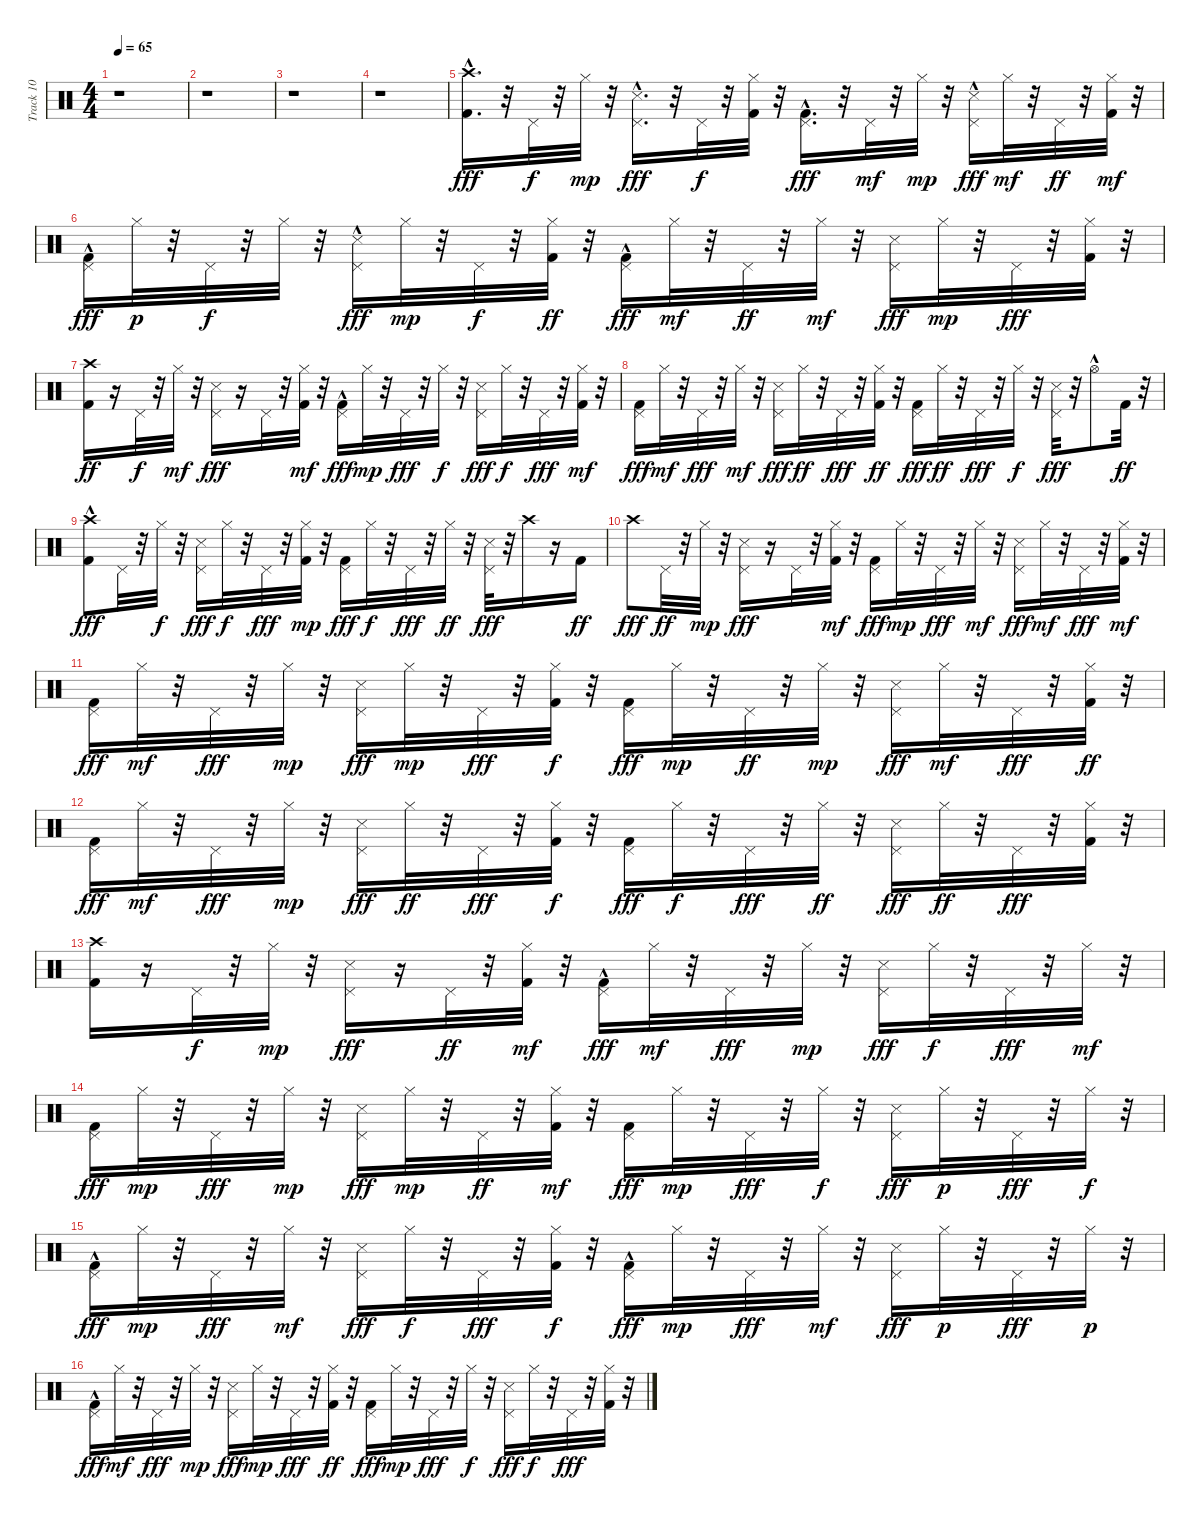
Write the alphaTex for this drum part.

\track ("Track 10" "Track 10") {instrument percussion}
\staff {score}
\articulation defaults
\ts (4 4)
\tempo 65
\clef neutral
\ks c
r.1{dy fff} |
r.1 |
r.1 |
r.1 |
("Kick (hit) 2"{hac} "Crash high (hit)").16{d} r.32 "Pedal Hi-Hat (hit)".32{dy f} r.32 "Hi-Hat (closed)".32{dy mp} r.32 ("Snare (side stick) 3"{hac} "Pedal Hi-Hat (hit)").16{d dy fff} r.32 "Pedal Hi-Hat (hit)".32{dy f} r.32 ("Hi-Hat (closed)" "Kick (hit) 2").32 r.32 ("Pedal Hi-Hat (hit)" "Kick (hit) 2"{hac}).16{d dy fff} r.32 "Pedal Hi-Hat (hit)".32{dy mf} r.32 "Hi-Hat (closed)".32{dy mp} r.32 ("Snare (side stick) 3"{hac} "Pedal Hi-Hat (hit)").16{dy fff} "Hi-Hat (closed)".32{dy mf} r.32 "Pedal Hi-Hat (hit)".32{dy ff} r.32 ("Hi-Hat (closed)" "Kick (hit) 2").32{dy mf} r.32 |
("Kick (hit) 2"{hac} "Pedal Hi-Hat (hit)").16{dy fff} "Hi-Hat (closed)".32{dy p} r.32 "Pedal Hi-Hat (hit)".32{dy f} r.32 "Hi-Hat (closed)".32 r.32 ("Snare (side stick) 3"{hac} "Pedal Hi-Hat (hit)").16{dy fff} "Hi-Hat (closed)".32{dy mp} r.32 "Pedal Hi-Hat (hit)".32{dy f} r.32 ("Kick (hit) 2" "Hi-Hat (closed)").32{dy ff} r.32 ("Kick (hit) 2"{hac} "Pedal Hi-Hat (hit)").16{dy fff} "Hi-Hat (closed)".32{dy mf} r.32 "Pedal Hi-Hat (hit)".32{dy ff} r.32 "Hi-Hat (closed)".32{dy mf} r.32 ("Snare (side stick) 3" "Pedal Hi-Hat (hit)").16{dy fff} "Hi-Hat (closed)".32{dy mp} r.32 "Pedal Hi-Hat (hit)".32{dy fff} r.32 ("Kick (hit) 2" "Hi-Hat (closed)").32 r.32 |
("Kick (hit) 2" "Crash high (hit)").16{dy ff} r.16 "Pedal Hi-Hat (hit)".32{dy f} r.32 "Hi-Hat (closed)".32{dy mf} r.32 ("Snare (side stick) 3" "Pedal Hi-Hat (hit)").16{dy fff} r.16 "Pedal Hi-Hat (hit)".32 r.32 ("Kick (hit) 2" "Hi-Hat (closed)").32{dy mf} r.32 ("Kick (hit) 2"{hac} "Pedal Hi-Hat (hit)").16{dy fff} "Hi-Hat (closed)".32{dy mp} r.32 "Pedal Hi-Hat (hit)".32{dy fff} r.32 "Hi-Hat (closed)".32{dy f} r.32 ("Snare (side stick) 3" "Pedal Hi-Hat (hit)").16{dy fff} "Hi-Hat (closed)".32{dy f} r.32 "Pedal Hi-Hat (hit)".32{dy fff} r.32 ("Hi-Hat (closed)" "Kick (hit) 2").32{dy mf} r.32 |
("Kick (hit) 2" "Pedal Hi-Hat (hit)").16{dy fff} "Hi-Hat (closed)".32{dy mf} r.32 "Pedal Hi-Hat (hit)".32{dy fff} r.32 "Hi-Hat (closed)".32{dy mf} r.32 ("Snare (side stick) 3" "Pedal Hi-Hat (hit)").16{dy fff} "Hi-Hat (closed)".32{dy ff} r.32 "Pedal Hi-Hat (hit)".32{dy fff} r.32 ("Kick (hit) 2" "Hi-Hat (closed)").32{dy ff} r.32 ("Kick (hit) 2" "Pedal Hi-Hat (hit)").16{dy fff} "Hi-Hat (closed)".32{dy ff} r.32 "Pedal Hi-Hat (hit)".32{dy fff} r.32 "Hi-Hat (closed)".32{dy f} r.32 ("Pedal Hi-Hat (hit)" "Snare (side stick) 3").32{dy fff} r.32 "Hi-Hat (open)"{hac}.8 "Kick (hit) 2".32{dy ff} r.32 |
("Kick (hit) 2"{hac} "Crash high (hit)").8{dy fff} "Pedal Hi-Hat (hit)".32 r.32 "Hi-Hat (closed)".32{dy f} r.32 ("Snare (side stick) 3" "Pedal Hi-Hat (hit)").16{dy fff} "Hi-Hat (closed)".32{dy f} r.32 "Pedal Hi-Hat (hit)".32{dy fff} r.32 ("Kick (hit) 2" "Hi-Hat (closed)").32{dy mp} r.32 ("Kick (hit) 2" "Pedal Hi-Hat (hit)").16{dy fff} "Hi-Hat (closed)".32{dy f} r.32 "Pedal Hi-Hat (hit)".32{dy fff} r.32 "Hi-Hat (closed)".32{dy ff} r.32 ("Pedal Hi-Hat (hit)" "Snare (side stick) 3").32{dy fff} r.32 "Crash high (hit)".16 r.16 "Kick (hit) 2".16{dy ff} |
"Crash high (hit)".8{dy fff} "Pedal Hi-Hat (hit)".32{dy ff} r.32 "Hi-Hat (closed)".32{dy mp} r.32 ("Snare (side stick) 3" "Pedal Hi-Hat (hit)").16{dy fff} r.16 "Pedal Hi-Hat (hit)".32 r.32 ("Hi-Hat (closed)" "Kick (hit) 2").32{dy mf} r.32 ("Kick (hit) 2" "Pedal Hi-Hat (hit)").16{dy fff} "Hi-Hat (closed)".32{dy mp} r.32 "Pedal Hi-Hat (hit)".32{dy fff} r.32 "Hi-Hat (closed)".32{dy mf} r.32 ("Pedal Hi-Hat (hit)" "Snare (side stick) 3").16{dy fff} "Hi-Hat (closed)".32{dy mf} r.32 "Pedal Hi-Hat (hit)".32{dy fff} r.32 ("Kick (hit) 2" "Hi-Hat (closed)").32{dy mf} r.32 |
("Kick (hit) 2" "Pedal Hi-Hat (hit)").16{dy fff} "Hi-Hat (closed)".32{dy mf} r.32 "Pedal Hi-Hat (hit)".32{dy fff} r.32 "Hi-Hat (closed)".32{dy mp} r.32 ("Snare (side stick) 3" "Pedal Hi-Hat (hit)").16{dy fff} "Hi-Hat (closed)".32{dy mp} r.32 "Pedal Hi-Hat (hit)".32{dy fff} r.32 ("Kick (hit) 2" "Hi-Hat (closed)").32{dy f} r.32 ("Kick (hit) 2" "Pedal Hi-Hat (hit)").16{dy fff} "Hi-Hat (closed)".32{dy mp} r.32 "Pedal Hi-Hat (hit)".32{dy ff} r.32 "Hi-Hat (closed)".32{dy mp} r.32 ("Snare (side stick) 3" "Pedal Hi-Hat (hit)").16{dy fff} "Hi-Hat (closed)".32{dy mf} r.32 "Pedal Hi-Hat (hit)".32{dy fff} r.32 ("Kick (hit) 2" "Hi-Hat (closed)").32{dy ff} r.32 |
("Kick (hit) 2" "Pedal Hi-Hat (hit)").16{dy fff} "Hi-Hat (closed)".32{dy mf} r.32 "Pedal Hi-Hat (hit)".32{dy fff} r.32 "Hi-Hat (closed)".32{dy mp} r.32 ("Snare (side stick) 3" "Pedal Hi-Hat (hit)").16{dy fff} "Hi-Hat (closed)".32{dy ff} r.32 "Pedal Hi-Hat (hit)".32{dy fff} r.32 ("Kick (hit) 2" "Hi-Hat (closed)").32{dy f} r.32 ("Kick (hit) 2" "Pedal Hi-Hat (hit)").16{dy fff} "Hi-Hat (closed)".32{dy f} r.32 "Pedal Hi-Hat (hit)".32{dy fff} r.32 "Hi-Hat (closed)".32{dy ff} r.32 ("Snare (side stick) 3" "Pedal Hi-Hat (hit)").16{dy fff} "Hi-Hat (closed)".32{dy ff} r.32 "Pedal Hi-Hat (hit)".32{dy fff} r.32 ("Kick (hit) 2" "Hi-Hat (closed)").32 r.32 |
("Kick (hit) 2" "Crash high (hit)").16 r.16 "Pedal Hi-Hat (hit)".32{dy f} r.32 "Hi-Hat (closed)".32{dy mp} r.32 ("Pedal Hi-Hat (hit)" "Snare (side stick) 3").16{dy fff} r.16 "Pedal Hi-Hat (hit)".32{dy ff} r.32 ("Kick (hit) 2" "Hi-Hat (closed)").32{dy mf} r.32 ("Kick (hit) 2"{hac} "Pedal Hi-Hat (hit)").16{dy fff} "Hi-Hat (closed)".32{dy mf} r.32 "Pedal Hi-Hat (hit)".32{dy fff} r.32 "Hi-Hat (closed)".32{dy mp} r.32 ("Snare (side stick) 3" "Pedal Hi-Hat (hit)").16{dy fff} "Hi-Hat (closed)".32{dy f} r.32 "Pedal Hi-Hat (hit)".32{dy fff} r.32 "Hi-Hat (closed)".32{dy mf} r.32 |
("Kick (hit) 2" "Pedal Hi-Hat (hit)").16{dy fff} "Hi-Hat (closed)".32{dy mp} r.32 "Pedal Hi-Hat (hit)".32{dy fff} r.32 "Hi-Hat (closed)".32{dy mp} r.32 ("Snare (side stick) 3" "Pedal Hi-Hat (hit)").16{dy fff} "Hi-Hat (closed)".32{dy mp} r.32 "Pedal Hi-Hat (hit)".32{dy ff} r.32 ("Hi-Hat (closed)" "Kick (hit) 2").32{dy mf} r.32 ("Kick (hit) 2" "Pedal Hi-Hat (hit)").16{dy fff} "Hi-Hat (closed)".32{dy mp} r.32 "Pedal Hi-Hat (hit)".32{dy fff} r.32 "Hi-Hat (closed)".32{dy f} r.32 ("Snare (side stick) 3" "Pedal Hi-Hat (hit)").16{dy fff} "Hi-Hat (closed)".32{dy p} r.32 "Pedal Hi-Hat (hit)".32{dy fff} r.32 "Hi-Hat (closed)".32{dy f} r.32 |
("Kick (hit) 2"{hac} "Pedal Hi-Hat (hit)").16{dy fff} "Hi-Hat (closed)".32{dy mp} r.32 "Pedal Hi-Hat (hit)".32{dy fff} r.32 "Hi-Hat (closed)".32{dy mf} r.32 ("Snare (side stick) 3" "Pedal Hi-Hat (hit)").16{dy fff} "Hi-Hat (closed)".32{dy f} r.32 "Pedal Hi-Hat (hit)".32{dy fff} r.32 ("Hi-Hat (closed)" "Kick (hit) 2").32{dy f} r.32 ("Pedal Hi-Hat (hit)" "Kick (hit) 2"{hac}).16{dy fff} "Hi-Hat (closed)".32{dy mp} r.32 "Pedal Hi-Hat (hit)".32{dy fff} r.32 "Hi-Hat (closed)".32{dy mf} r.32 ("Snare (side stick) 3" "Pedal Hi-Hat (hit)").16{dy fff} "Hi-Hat (closed)".32{dy p} r.32 "Pedal Hi-Hat (hit)".32{dy fff} r.32 "Hi-Hat (closed)".32{dy p} r.32 |
("Kick (hit) 2"{hac} "Pedal Hi-Hat (hit)").16{dy fff} "Hi-Hat (closed)".32{dy mf} r.32 "Pedal Hi-Hat (hit)".32{dy fff} r.32 "Hi-Hat (closed)".32{dy mp} r.32 ("Snare (side stick) 3" "Pedal Hi-Hat (hit)").16{dy fff} "Hi-Hat (closed)".32{dy mp} r.32 "Pedal Hi-Hat (hit)".32{dy fff} r.32 ("Kick (hit) 2" "Hi-Hat (closed)").32{dy ff} r.32 ("Kick (hit) 2" "Pedal Hi-Hat (hit)").16{dy fff} "Hi-Hat (closed)".32{dy mp} r.32 "Pedal Hi-Hat (hit)".32{dy fff} r.32 "Hi-Hat (closed)".32{dy f} r.32 ("Snare (side stick) 3" "Pedal Hi-Hat (hit)").16{dy fff} "Hi-Hat (closed)".32{dy f} r.32 "Pedal Hi-Hat (hit)".32{dy fff} r.32 ("Kick (hit) 2" "Hi-Hat (closed)").32 r.32
